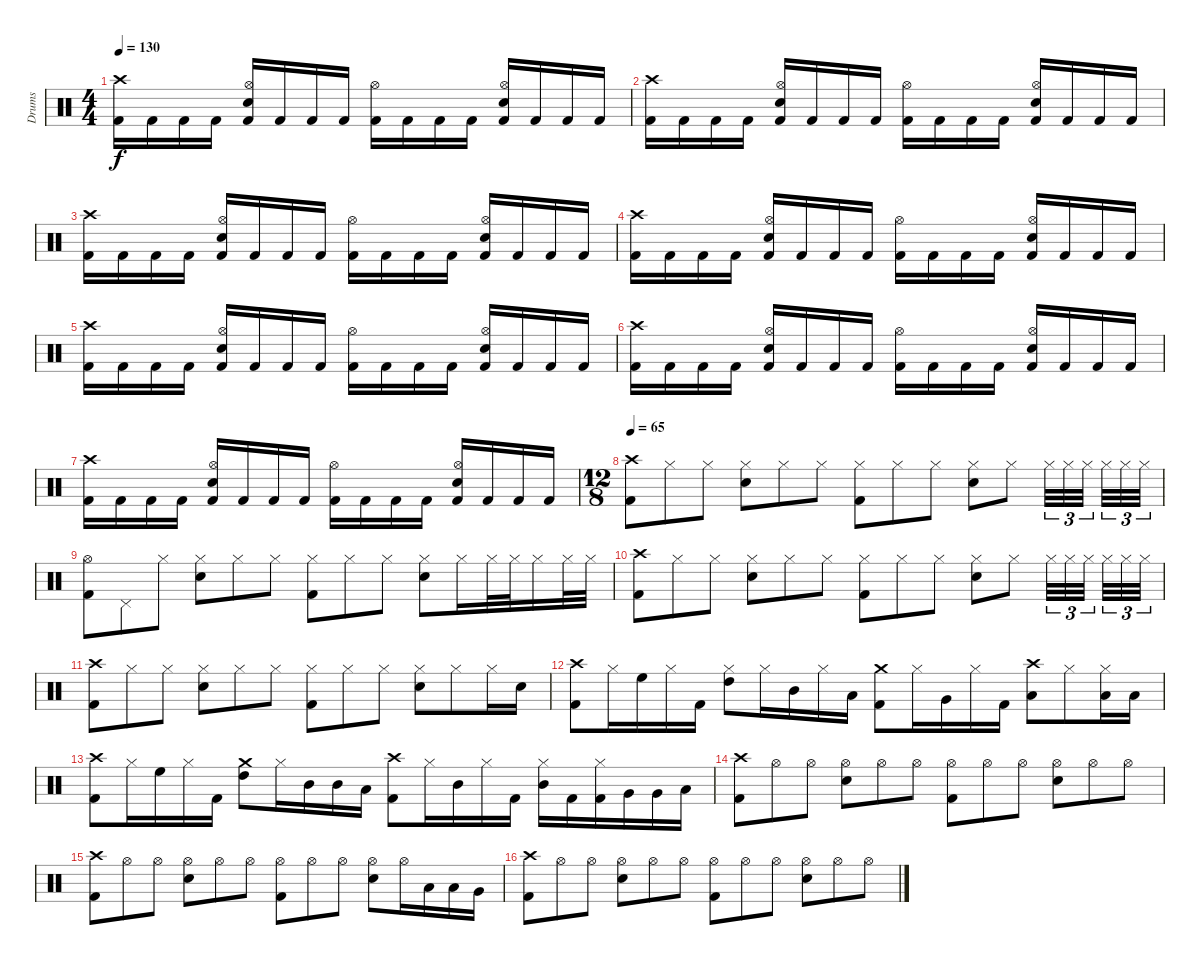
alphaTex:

\track ("Drums" "Drums") {instrument percussion}
\staff {score}
\articulation defaults
\ts (4 4)
\tempo 130
\clef neutral
\ks c
("Crash high (hit)" "Kick (hit) 2").16{dy f} "Kick (hit) 2".16 "Kick (hit) 2".16 "Kick (hit) 2".16 ("Hi-Hat (open)" "Electric Snare (hit)" "Kick (hit) 2").16 "Kick (hit) 2".16 "Kick (hit) 2".16 "Kick (hit) 2".16 ("Hi-Hat (open)" "Kick (hit) 2").16 "Kick (hit) 2".16 "Kick (hit) 2".16 "Kick (hit) 2".16 ("Hi-Hat (open)" "Electric Snare (hit)" "Kick (hit) 2").16 "Kick (hit) 2".16 "Kick (hit) 2".16 "Kick (hit) 2".16 |
("Crash high (hit)" "Kick (hit) 2").16 "Kick (hit) 2".16 "Kick (hit) 2".16 "Kick (hit) 2".16 ("Hi-Hat (open)" "Electric Snare (hit)" "Kick (hit) 2").16 "Kick (hit) 2".16 "Kick (hit) 2".16 "Kick (hit) 2".16 ("Hi-Hat (open)" "Kick (hit) 2").16 "Kick (hit) 2".16 "Kick (hit) 2".16 "Kick (hit) 2".16 ("Hi-Hat (open)" "Electric Snare (hit)" "Kick (hit) 2").16 "Kick (hit) 2".16 "Kick (hit) 2".16 "Kick (hit) 2".16 |
("Crash high (hit)" "Kick (hit) 2").16 "Kick (hit) 2".16 "Kick (hit) 2".16 "Kick (hit) 2".16 ("Hi-Hat (open)" "Electric Snare (hit)" "Kick (hit) 2").16 "Kick (hit) 2".16 "Kick (hit) 2".16 "Kick (hit) 2".16 ("Hi-Hat (open)" "Kick (hit) 2").16 "Kick (hit) 2".16 "Kick (hit) 2".16 "Kick (hit) 2".16 ("Hi-Hat (open)" "Electric Snare (hit)" "Kick (hit) 2").16 "Kick (hit) 2".16 "Kick (hit) 2".16 "Kick (hit) 2".16 |
("Crash high (hit)" "Kick (hit) 2").16 "Kick (hit) 2".16 "Kick (hit) 2".16 "Kick (hit) 2".16 ("Hi-Hat (open)" "Electric Snare (hit)" "Kick (hit) 2").16 "Kick (hit) 2".16 "Kick (hit) 2".16 "Kick (hit) 2".16 ("Hi-Hat (open)" "Kick (hit) 2").16 "Kick (hit) 2".16 "Kick (hit) 2".16 "Kick (hit) 2".16 ("Hi-Hat (open)" "Electric Snare (hit)" "Kick (hit) 2").16 "Kick (hit) 2".16 "Kick (hit) 2".16 "Kick (hit) 2".16 |
("Crash high (hit)" "Kick (hit) 2").16 "Kick (hit) 2".16 "Kick (hit) 2".16 "Kick (hit) 2".16 ("Hi-Hat (open)" "Electric Snare (hit)" "Kick (hit) 2").16 "Kick (hit) 2".16 "Kick (hit) 2".16 "Kick (hit) 2".16 ("Hi-Hat (open)" "Kick (hit) 2").16 "Kick (hit) 2".16 "Kick (hit) 2".16 "Kick (hit) 2".16 ("Hi-Hat (open)" "Electric Snare (hit)" "Kick (hit) 2").16 "Kick (hit) 2".16 "Kick (hit) 2".16 "Kick (hit) 2".16 |
("Crash high (hit)" "Kick (hit) 2").16 "Kick (hit) 2".16 "Kick (hit) 2".16 "Kick (hit) 2".16 ("Hi-Hat (open)" "Electric Snare (hit)" "Kick (hit) 2").16 "Kick (hit) 2".16 "Kick (hit) 2".16 "Kick (hit) 2".16 ("Hi-Hat (open)" "Kick (hit) 2").16 "Kick (hit) 2".16 "Kick (hit) 2".16 "Kick (hit) 2".16 ("Hi-Hat (open)" "Electric Snare (hit)" "Kick (hit) 2").16 "Kick (hit) 2".16 "Kick (hit) 2".16 "Kick (hit) 2".16 |
("Crash high (hit)" "Kick (hit) 2").16 "Kick (hit) 2".16 "Kick (hit) 2".16 "Kick (hit) 2".16 ("Hi-Hat (open)" "Electric Snare (hit)" "Kick (hit) 2").16 "Kick (hit) 2".16 "Kick (hit) 2".16 "Kick (hit) 2".16 ("Hi-Hat (open)" "Kick (hit) 2").16 "Kick (hit) 2".16 "Kick (hit) 2".16 "Kick (hit) 2".16 ("Hi-Hat (open)" "Electric Snare (hit)" "Kick (hit) 2").16 "Kick (hit) 2".16 "Kick (hit) 2".16 "Kick (hit) 2".16 |
\ts (12 8)
\tempo 65
("Crash high (hit)" "Kick (hit) 2").8 "Hi-Hat (closed)".8 "Hi-Hat (closed)".8 ("Hi-Hat (closed)" "Electric Snare (hit)").8 "Hi-Hat (closed)".8 "Hi-Hat (closed)".8 ("Hi-Hat (closed)" "Kick (hit) 2").8 "Hi-Hat (closed)".8 "Hi-Hat (closed)".8 ("Hi-Hat (closed)" "Electric Snare (hit)").8 "Hi-Hat (closed)".8 "Hi-Hat (closed)".32{tu (3 2)} "Hi-Hat (closed)".32{tu (3 2)} "Hi-Hat (closed)".32{tu (3 2)} "Hi-Hat (closed)".32{tu (3 2)} "Hi-Hat (closed)".32{tu (3 2)} "Hi-Hat (closed)".32{tu (3 2)} |
("Hi-Hat (open)" "Kick (hit) 2").8 "Pedal Hi-Hat (hit)".8 "Hi-Hat (closed)".8 ("Hi-Hat (closed)" "Electric Snare (hit)").8 "Hi-Hat (closed)".8 "Hi-Hat (closed)".8 ("Hi-Hat (closed)" "Kick (hit) 2").8 "Hi-Hat (closed)".8 "Hi-Hat (closed)".8 ("Hi-Hat (closed)" "Electric Snare (hit)").8 "Hi-Hat (closed)".16 "Hi-Hat (closed)".32 "Hi-Hat (closed)".32 "Hi-Hat (closed)".16 "Hi-Hat (closed)".32 "Hi-Hat (closed)".32 |
("Crash high (hit)" "Kick (hit) 2").8 "Hi-Hat (closed)".8 "Hi-Hat (closed)".8 ("Hi-Hat (closed)" "Electric Snare (hit)").8 "Hi-Hat (closed)".8 "Hi-Hat (closed)".8 ("Hi-Hat (closed)" "Kick (hit) 2").8 "Hi-Hat (closed)".8 "Hi-Hat (closed)".8 ("Hi-Hat (closed)" "Electric Snare (hit)").8 "Hi-Hat (closed)".8 "Hi-Hat (closed)".32{tu (3 2)} "Hi-Hat (closed)".32{tu (3 2)} "Hi-Hat (closed)".32{tu (3 2)} "Hi-Hat (closed)".32{tu (3 2)} "Hi-Hat (closed)".32{tu (3 2)} "Hi-Hat (closed)".32{tu (3 2)} |
("Crash high (hit)" "Kick (hit) 2").8 "Hi-Hat (closed)".8 "Hi-Hat (closed)".8 ("Hi-Hat (closed)" "Electric Snare (hit)").8 "Hi-Hat (closed)".8 "Hi-Hat (closed)".8 ("Hi-Hat (closed)" "Kick (hit) 2").8 "Hi-Hat (closed)".8 "Hi-Hat (closed)".8 ("Hi-Hat (closed)" "Electric Snare (hit)").8 "Hi-Hat (closed)".8 "Hi-Hat (closed)".16 "Electric Snare (hit)".16 |
("Crash high (hit)" "Kick (hit) 2").8 "Hi-Hat (closed)".16 "High Floor Tom (hit)".16 "Hi-Hat (closed)".16 "Kick (hit) 2".16 ("Hi-Hat (closed)" "High Tom (hit)").8 "Hi-Hat (closed)".16 "Mid Tom (hit)".16 "Hi-Hat (closed)".16 "Low Tom (hit)".16 ("Crash medium (hit)" "Kick (hit) 2").8 "Hi-Hat (closed)".16 "Very Low Tom (hit)".16 "Hi-Hat (closed)".16 "Kick (hit) 2".16 ("Crash high (hit)" "Low Floor Tom (hit)").8 "Hi-Hat (closed)".8 ("Hi-Hat (closed)" "Low Floor Tom (hit)").16 "Low Floor Tom (hit)".16 |
("Crash high (hit)" "Kick (hit) 2").8 "Hi-Hat (closed)".16 "High Floor Tom (hit)".16 "Hi-Hat (closed)".16 "Kick (hit) 2".16 ("Crash medium (hit)" "High Tom (hit)").8 "Hi-Hat (closed)".16 "Mid Tom (hit)".16 "Mid Tom (hit)".16 "Low Tom (hit)".16 ("Crash high (hit)" "Kick (hit) 2").8 "Hi-Hat (closed)".16 "Mid Tom (hit)".16 "Hi-Hat (closed)".16 "Kick (hit) 2".16 ("Hi-Hat (closed)" "Mid Tom (hit)").16 "Kick (hit) 2".16 ("Hi-Hat (closed)" "Kick (hit) 2").16 "Very Low Tom (hit)".16 "Very Low Tom (hit)".16 "Low Floor Tom (hit)".16 |
("Crash high (hit)" "Kick (hit) 2").8 "Hi-Hat (open)".8 "Hi-Hat (open)".8 ("Hi-Hat (open)" "Electric Snare (hit)").8 "Hi-Hat (open)".8 "Hi-Hat (open)".8 ("Hi-Hat (open)" "Kick (hit) 2").8 "Hi-Hat (open)".8 "Hi-Hat (open)".8 ("Hi-Hat (open)" "Electric Snare (hit)").8 "Hi-Hat (open)".8 "Hi-Hat (open)".8 |
("Crash high (hit)" "Kick (hit) 2").8 "Hi-Hat (open)".8 "Hi-Hat (open)".8 ("Hi-Hat (open)" "Electric Snare (hit)").8 "Hi-Hat (open)".8 "Hi-Hat (open)".8 ("Hi-Hat (open)" "Kick (hit) 2").8 "Hi-Hat (open)".8 "Hi-Hat (open)".8 ("Hi-Hat (open)" "Electric Snare (hit)").8 "Hi-Hat (open)".16 "Low Tom (hit)".16 "Low Tom (hit)".16 "Very Low Tom (hit)".16 |
("Crash high (hit)" "Kick (hit) 2").8 "Hi-Hat (open)".8 "Hi-Hat (open)".8 ("Hi-Hat (open)" "Electric Snare (hit)").8 "Hi-Hat (open)".8 "Hi-Hat (open)".8 ("Hi-Hat (open)" "Kick (hit) 2").8 "Hi-Hat (open)".8 "Hi-Hat (open)".8 ("Hi-Hat (open)" "Electric Snare (hit)").8 "Hi-Hat (open)".8 "Hi-Hat (open)".8
